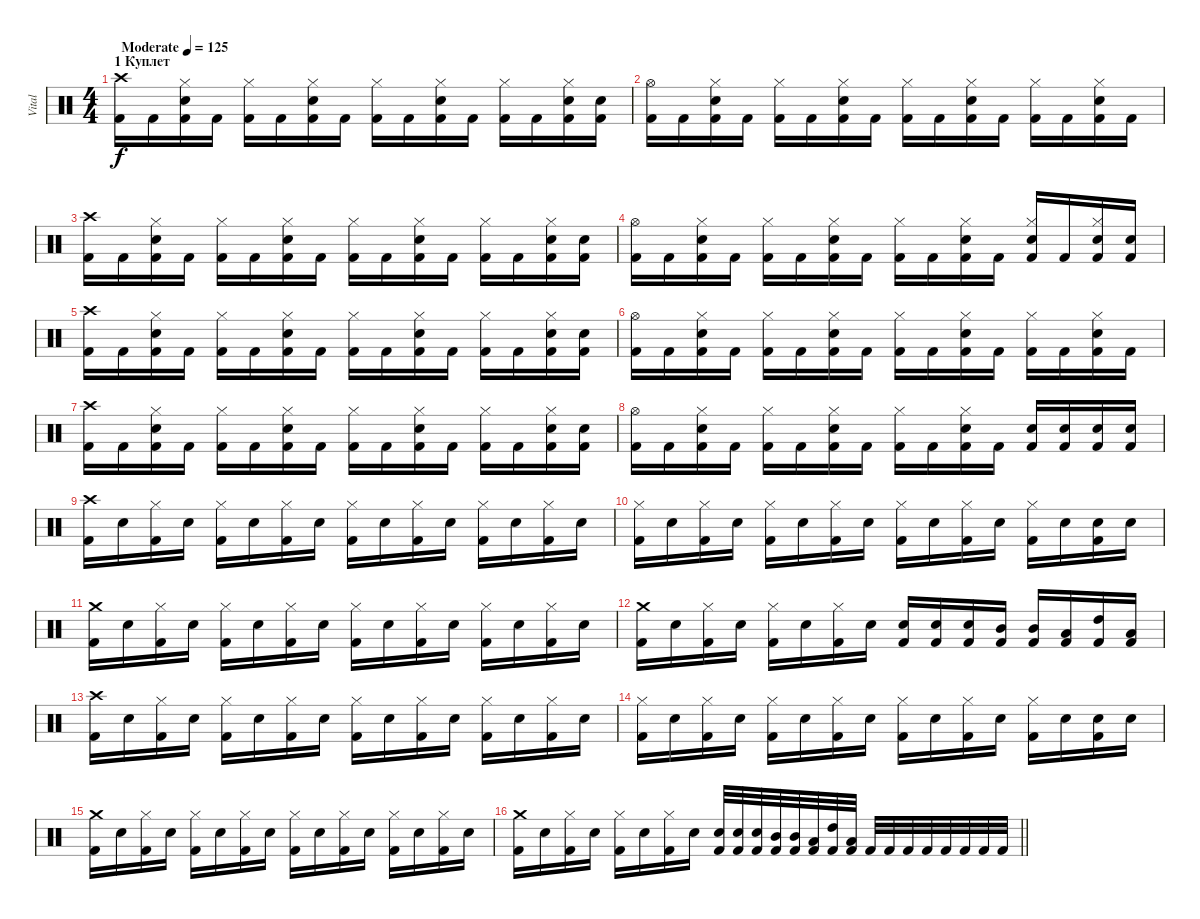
\track ("Vital" "Vital") {instrument percussion}
\staff {score}
\articulation defaults
\ts (4 4)
\section ("" "1 Куплет")
\tempo (125 "Moderate")
\clef neutral
\ks c
("Crash high (hit)" "Kick (hit) 2").16{dy f} "Kick (hit) 2".16 ("Hi-Hat (closed)" "Snare (hit) 2" "Kick (hit) 2").16 "Kick (hit) 2".16 ("Hi-Hat (closed)" "Kick (hit) 2").16 "Kick (hit) 2".16 ("Hi-Hat (closed)" "Snare (hit) 2" "Kick (hit) 2").16 "Kick (hit) 2".16 ("Hi-Hat (closed)" "Kick (hit) 2").16 "Kick (hit) 2".16 ("Hi-Hat (closed)" "Snare (hit) 2" "Kick (hit) 2").16 "Kick (hit) 2".16 ("Hi-Hat (closed)" "Kick (hit) 2").16 "Kick (hit) 2".16 ("Hi-Hat (closed)" "Snare (hit) 2" "Kick (hit) 2").16 ("Snare (hit) 2" "Kick (hit) 2").16 |
("Hi-Hat (open)" "Kick (hit) 2").16 "Kick (hit) 2".16 ("Hi-Hat (closed)" "Snare (hit) 2" "Kick (hit) 2").16 "Kick (hit) 2".16 ("Hi-Hat (closed)" "Kick (hit) 2").16 "Kick (hit) 2".16 ("Hi-Hat (closed)" "Snare (hit) 2" "Kick (hit) 2").16 "Kick (hit) 2".16 ("Hi-Hat (closed)" "Kick (hit) 2").16 "Kick (hit) 2".16 ("Hi-Hat (closed)" "Snare (hit) 2" "Kick (hit) 2").16 "Kick (hit) 2".16 ("Hi-Hat (closed)" "Kick (hit) 2").16 "Kick (hit) 2".16 ("Hi-Hat (closed)" "Snare (hit) 2" "Kick (hit) 2").16 "Kick (hit) 2".16 |
("Crash high (hit)" "Kick (hit) 2").16 "Kick (hit) 2".16 ("Hi-Hat (closed)" "Snare (hit) 2" "Kick (hit) 2").16 "Kick (hit) 2".16 ("Hi-Hat (closed)" "Kick (hit) 2").16 "Kick (hit) 2".16 ("Hi-Hat (closed)" "Snare (hit) 2" "Kick (hit) 2").16 "Kick (hit) 2".16 ("Hi-Hat (closed)" "Kick (hit) 2").16 "Kick (hit) 2".16 ("Hi-Hat (closed)" "Snare (hit) 2" "Kick (hit) 2").16 "Kick (hit) 2".16 ("Hi-Hat (closed)" "Kick (hit) 2").16 "Kick (hit) 2".16 ("Hi-Hat (closed)" "Snare (hit) 2" "Kick (hit) 2").16 ("Snare (hit) 2" "Kick (hit) 2").16 |
("Hi-Hat (open)" "Kick (hit) 2").16 "Kick (hit) 2".16 ("Hi-Hat (closed)" "Snare (hit) 2" "Kick (hit) 2").16 "Kick (hit) 2".16 ("Hi-Hat (closed)" "Kick (hit) 2").16 "Kick (hit) 2".16 ("Hi-Hat (closed)" "Snare (hit) 2" "Kick (hit) 2").16 "Kick (hit) 2".16 ("Hi-Hat (closed)" "Kick (hit) 2").16 "Kick (hit) 2".16 ("Hi-Hat (closed)" "Snare (hit) 2" "Kick (hit) 2").16 "Kick (hit) 2".16 ("Hi-Hat (closed)" "Snare (hit) 2" "Kick (hit) 2").16 "Kick (hit) 2".16 ("Hi-Hat (closed)" "Snare (hit) 2" "Kick (hit) 2").16 ("Snare (hit) 2" "Kick (hit) 2").16 |
("Crash high (hit)" "Kick (hit) 2").16 "Kick (hit) 2".16 ("Hi-Hat (closed)" "Snare (hit) 2" "Kick (hit) 2").16 "Kick (hit) 2".16 ("Hi-Hat (closed)" "Kick (hit) 2").16 "Kick (hit) 2".16 ("Hi-Hat (closed)" "Snare (hit) 2" "Kick (hit) 2").16 "Kick (hit) 2".16 ("Hi-Hat (closed)" "Kick (hit) 2").16 "Kick (hit) 2".16 ("Hi-Hat (closed)" "Snare (hit) 2" "Kick (hit) 2").16 "Kick (hit) 2".16 ("Hi-Hat (closed)" "Kick (hit) 2").16 "Kick (hit) 2".16 ("Hi-Hat (closed)" "Snare (hit) 2" "Kick (hit) 2").16 ("Snare (hit) 2" "Kick (hit) 2").16 |
("Hi-Hat (open)" "Kick (hit) 2").16 "Kick (hit) 2".16 ("Hi-Hat (closed)" "Snare (hit) 2" "Kick (hit) 2").16 "Kick (hit) 2".16 ("Hi-Hat (closed)" "Kick (hit) 2").16 "Kick (hit) 2".16 ("Hi-Hat (closed)" "Snare (hit) 2" "Kick (hit) 2").16 "Kick (hit) 2".16 ("Hi-Hat (closed)" "Kick (hit) 2").16 "Kick (hit) 2".16 ("Hi-Hat (closed)" "Snare (hit) 2" "Kick (hit) 2").16 "Kick (hit) 2".16 ("Hi-Hat (closed)" "Kick (hit) 2").16 "Kick (hit) 2".16 ("Hi-Hat (closed)" "Snare (hit) 2" "Kick (hit) 2").16 "Kick (hit) 2".16 |
("Crash high (hit)" "Kick (hit) 2").16 "Kick (hit) 2".16 ("Hi-Hat (closed)" "Snare (hit) 2" "Kick (hit) 2").16 "Kick (hit) 2".16 ("Hi-Hat (closed)" "Kick (hit) 2").16 "Kick (hit) 2".16 ("Hi-Hat (closed)" "Snare (hit) 2" "Kick (hit) 2").16 "Kick (hit) 2".16 ("Hi-Hat (closed)" "Kick (hit) 2").16 "Kick (hit) 2".16 ("Hi-Hat (closed)" "Snare (hit) 2" "Kick (hit) 2").16 "Kick (hit) 2".16 ("Hi-Hat (closed)" "Kick (hit) 2").16 "Kick (hit) 2".16 ("Hi-Hat (closed)" "Snare (hit) 2" "Kick (hit) 2").16 ("Snare (hit) 2" "Kick (hit) 2").16 |
("Hi-Hat (open)" "Kick (hit) 2").16 "Kick (hit) 2".16 ("Hi-Hat (closed)" "Snare (hit) 2" "Kick (hit) 2").16 "Kick (hit) 2".16 ("Hi-Hat (closed)" "Kick (hit) 2").16 "Kick (hit) 2".16 ("Hi-Hat (closed)" "Snare (hit) 2" "Kick (hit) 2").16 "Kick (hit) 2".16 ("Hi-Hat (closed)" "Kick (hit) 2").16 "Kick (hit) 2".16 ("Hi-Hat (closed)" "Snare (hit) 2" "Kick (hit) 2").16 "Kick (hit) 2".16 ("Snare (hit) 2" "Kick (hit) 2").16 ("Snare (hit) 2" "Kick (hit) 2").16 ("Snare (hit) 2" "Kick (hit) 2").16 ("Snare (hit) 2" "Kick (hit) 2").16 |
("Crash high (hit)" "Kick (hit) 2").16 "Snare (hit) 2".16 ("Hi-Hat (closed)" "Kick (hit) 2").16 "Snare (hit) 2".16 ("Hi-Hat (closed)" "Kick (hit) 2").16 "Snare (hit) 2".16 ("Hi-Hat (closed)" "Kick (hit) 2").16 "Snare (hit) 2".16 ("Hi-Hat (closed)" "Kick (hit) 2").16 "Snare (hit) 2".16 ("Hi-Hat (closed)" "Kick (hit) 2").16 "Snare (hit) 2".16 ("Hi-Hat (closed)" "Kick (hit) 2").16 "Snare (hit) 2".16 ("Hi-Hat (closed)" "Kick (hit) 2").16 "Snare (hit) 2".16 |
("Hi-Hat (closed)" "Kick (hit) 2").16 "Snare (hit) 2".16 ("Hi-Hat (closed)" "Kick (hit) 2").16 "Snare (hit) 2".16 ("Hi-Hat (closed)" "Kick (hit) 2").16 "Snare (hit) 2".16 ("Hi-Hat (closed)" "Kick (hit) 2").16 "Snare (hit) 2".16 ("Hi-Hat (closed)" "Kick (hit) 2").16 "Snare (hit) 2".16 ("Hi-Hat (closed)" "Kick (hit) 2").16 "Snare (hit) 2".16 ("Hi-Hat (closed)" "Kick (hit) 2").16 "Snare (hit) 2".16 ("Snare (hit) 2" "Kick (hit) 2").16 "Snare (hit) 2".16 |
("Crash medium (hit)" "Kick (hit) 2").16 "Snare (hit) 2".16 ("Hi-Hat (closed)" "Kick (hit) 2").16 "Snare (hit) 2".16 ("Hi-Hat (closed)" "Kick (hit) 2").16 "Snare (hit) 2".16 ("Hi-Hat (closed)" "Kick (hit) 2").16 "Snare (hit) 2".16 ("Hi-Hat (closed)" "Kick (hit) 2").16 "Snare (hit) 2".16 ("Hi-Hat (closed)" "Kick (hit) 2").16 "Snare (hit) 2".16 ("Hi-Hat (closed)" "Kick (hit) 2").16 "Snare (hit) 2".16 ("Hi-Hat (closed)" "Kick (hit) 2").16 "Snare (hit) 2".16 |
("Crash medium (hit)" "Kick (hit) 2").16 "Snare (hit) 2".16 ("Hi-Hat (closed)" "Kick (hit) 2").16 "Snare (hit) 2".16 ("Hi-Hat (closed)" "Kick (hit) 2").16 "Snare (hit) 2".16 ("Hi-Hat (closed)" "Kick (hit) 2").16 "Snare (hit) 2".16 ("Snare (hit) 2" "Kick (hit) 2").16 ("Snare (hit) 2" "Kick (hit) 2").16 ("Snare (hit) 2" "Kick (hit) 2").16 ("Mid Tom (hit)" "Kick (hit) 2").16 ("Mid Tom (hit)" "Kick (hit) 2").16 ("Low Tom (hit)" "Kick (hit) 2").16 ("High Tom (hit)" "Kick (hit) 2").16 ("Low Tom (hit)" "Kick (hit) 2").16 |
("Crash high (hit)" "Kick (hit) 2").16 "Snare (hit) 2".16 ("Hi-Hat (closed)" "Kick (hit) 2").16 "Snare (hit) 2".16 ("Hi-Hat (closed)" "Kick (hit) 2").16 "Snare (hit) 2".16 ("Hi-Hat (closed)" "Kick (hit) 2").16 "Snare (hit) 2".16 ("Hi-Hat (closed)" "Kick (hit) 2").16 "Snare (hit) 2".16 ("Hi-Hat (closed)" "Kick (hit) 2").16 "Snare (hit) 2".16 ("Hi-Hat (closed)" "Kick (hit) 2").16 "Snare (hit) 2".16 ("Hi-Hat (closed)" "Kick (hit) 2").16 "Snare (hit) 2".16 |
("Hi-Hat (closed)" "Kick (hit) 2").16 "Snare (hit) 2".16 ("Hi-Hat (closed)" "Kick (hit) 2").16 "Snare (hit) 2".16 ("Hi-Hat (closed)" "Kick (hit) 2").16 "Snare (hit) 2".16 ("Hi-Hat (closed)" "Kick (hit) 2").16 "Snare (hit) 2".16 ("Hi-Hat (closed)" "Kick (hit) 2").16 "Snare (hit) 2".16 ("Hi-Hat (closed)" "Kick (hit) 2").16 "Snare (hit) 2".16 ("Hi-Hat (closed)" "Kick (hit) 2").16 "Snare (hit) 2".16 ("Snare (hit) 2" "Kick (hit) 2").16 "Snare (hit) 2".16 |
("Crash medium (hit)" "Kick (hit) 2").16 "Snare (hit) 2".16 ("Hi-Hat (closed)" "Kick (hit) 2").16 "Snare (hit) 2".16 ("Hi-Hat (closed)" "Kick (hit) 2").16 "Snare (hit) 2".16 ("Hi-Hat (closed)" "Kick (hit) 2").16 "Snare (hit) 2".16 ("Hi-Hat (closed)" "Kick (hit) 2").16 "Snare (hit) 2".16 ("Hi-Hat (closed)" "Kick (hit) 2").16 "Snare (hit) 2".16 ("Hi-Hat (closed)" "Kick (hit) 2").16 "Snare (hit) 2".16 ("Hi-Hat (closed)" "Kick (hit) 2").16 "Snare (hit) 2".16 |
\barLineRight lightlight
("Crash medium (hit)" "Kick (hit) 2").16 "Snare (hit) 2".16 ("Hi-Hat (closed)" "Kick (hit) 2").16 "Snare (hit) 2".16 ("Hi-Hat (closed)" "Kick (hit) 2").16 "Snare (hit) 2".16 ("Hi-Hat (closed)" "Kick (hit) 2").16 "Snare (hit) 2".16 ("Snare (hit) 2" "Kick (hit) 2").32 ("Snare (hit) 2" "Kick (hit) 2").32 ("Snare (hit) 2" "Kick (hit) 2").32 ("Mid Tom (hit)" "Kick (hit) 2").32 ("Mid Tom (hit)" "Kick (hit) 2").32 ("Low Tom (hit)" "Kick (hit) 2").32 ("High Tom (hit)" "Kick (hit) 2").32 ("Low Tom (hit)" "Kick (hit) 2").32 "Kick (hit) 2".32 "Kick (hit) 2".32 "Kick (hit) 2".32 "Kick (hit) 2".32 "Kick (hit) 2".32 "Kick (hit) 2".32 "Kick (hit) 2".32 "Kick (hit) 2".32
